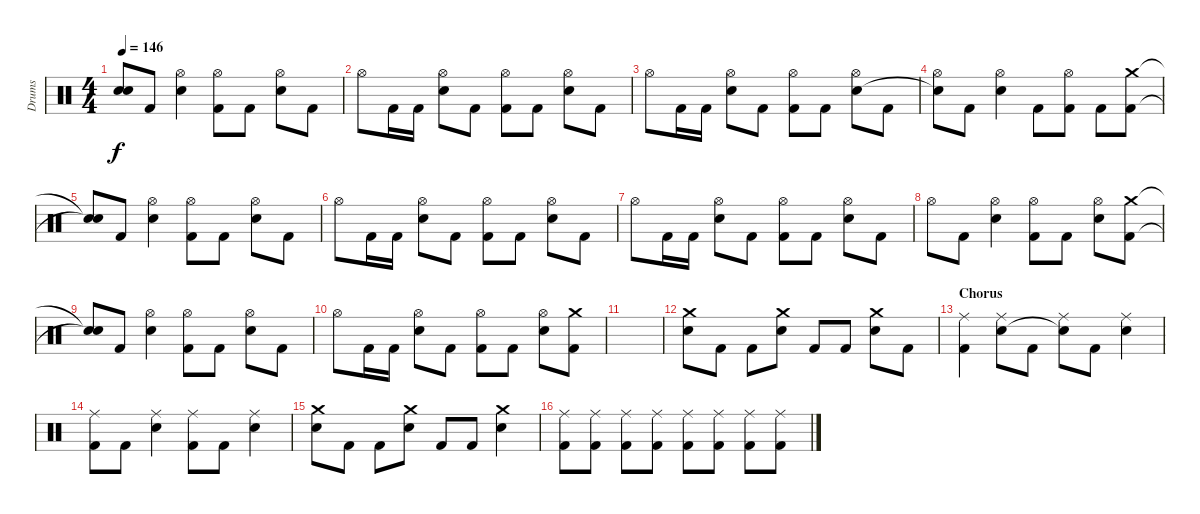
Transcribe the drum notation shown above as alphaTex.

\track ("Drums" "Drums") {instrument percussion}
\staff {score}
\articulation defaults
\ts (4 4)
\tempo 146
\clef neutral
\ks c
("Snare (hit)"{t} "Snare (hit)"{t}).8{dy f} "Kick (hit) 2".8 ("Hi-Hat (open)" "Electric Snare (hit)").4 ("Hi-Hat (open)" "Kick (hit) 2").8 "Kick (hit) 2".8 ("Hi-Hat (open)" "Electric Snare (hit)").8 "Kick (hit) 2".8 |
"Hi-Hat (open)".8 "Kick (hit) 2".16 "Kick (hit) 2".16 ("Hi-Hat (open)" "Electric Snare (hit)").8 "Kick (hit) 2".8 ("Hi-Hat (open)" "Kick (hit) 2").8 "Kick (hit) 2".8 ("Hi-Hat (open)" "Electric Snare (hit)").8 "Kick (hit) 2".8 |
"Hi-Hat (open)".8 "Kick (hit) 2".16 "Kick (hit) 2".16 ("Hi-Hat (open)" "Electric Snare (hit)").8 "Kick (hit) 2".8 ("Hi-Hat (open)" "Kick (hit) 2").8 "Kick (hit) 2".8 ("Hi-Hat (open)" "Electric Snare (hit)").8 "Kick (hit) 2".8 |
("Hi-Hat (open)" "Snare (hit)"{t}).8 "Kick (hit) 2".8 ("Hi-Hat (open)" "Electric Snare (hit)").4 "Kick (hit) 2".8 ("Hi-Hat (open)" "Kick (hit) 2").8 "Kick (hit) 2".8 ("Crash medium (hit)" "Kick (hit) 2").8 |
("Snare (hit)"{t} "Snare (hit)"{t}).8 "Kick (hit) 2".8 ("Hi-Hat (open)" "Electric Snare (hit)").4 ("Hi-Hat (open)" "Kick (hit) 2").8 "Kick (hit) 2".8 ("Hi-Hat (open)" "Electric Snare (hit)").8 "Kick (hit) 2".8 |
"Hi-Hat (open)".8 "Kick (hit) 2".16 "Kick (hit) 2".16 ("Hi-Hat (open)" "Electric Snare (hit)").8 "Kick (hit) 2".8 ("Hi-Hat (open)" "Kick (hit) 2").8 "Kick (hit) 2".8 ("Hi-Hat (open)" "Electric Snare (hit)").8 "Kick (hit) 2".8 |
"Hi-Hat (open)".8 "Kick (hit) 2".16 "Kick (hit) 2".16 ("Hi-Hat (open)" "Electric Snare (hit)").8 "Kick (hit) 2".8 ("Hi-Hat (open)" "Kick (hit) 2").8 "Kick (hit) 2".8 ("Hi-Hat (open)" "Electric Snare (hit)").8 "Kick (hit) 2".8 |
"Hi-Hat (open)".8 "Kick (hit) 2".8 ("Hi-Hat (open)" "Electric Snare (hit)").4 ("Hi-Hat (open)" "Kick (hit) 2").8 "Kick (hit) 2".8 ("Hi-Hat (open)" "Electric Snare (hit)").8 ("Crash medium (hit)" "Kick (hit) 2").8 |
("Snare (hit)"{t} "Snare (hit)"{t}).8 "Kick (hit) 2".8 ("Hi-Hat (open)" "Electric Snare (hit)").4 ("Hi-Hat (open)" "Kick (hit) 2").8 "Kick (hit) 2".8 ("Hi-Hat (open)" "Electric Snare (hit)").8 "Kick (hit) 2".8 |
"Hi-Hat (open)".8 "Kick (hit) 2".16 "Kick (hit) 2".16 ("Hi-Hat (open)" "Electric Snare (hit)").8 "Kick (hit) 2".8 ("Hi-Hat (open)" "Kick (hit) 2").8 "Kick (hit) 2".8 ("Hi-Hat (open)" "Electric Snare (hit)").8 ("Crash medium (hit)" "Kick (hit) 2").8 |
|
("Crash medium (hit)" "Electric Snare (hit)").8 "Kick (hit) 2".8 "Kick (hit) 2".8 ("Crash medium (hit)" "Electric Snare (hit)").8 "Kick (hit) 2".8 "Kick (hit) 2".8 ("Crash medium (hit)" "Electric Snare (hit)").8 "Kick (hit) 2".8 |
\section ("" "Chorus")
("Ride (middle)" "Kick (hit) 2").4 ("Ride (middle)" "Electric Snare (hit)").8 "Kick (hit) 2".8 ("Ride (middle)" "Snare (hit)"{t}).8 "Kick (hit) 2".8 ("Ride (middle)" "Electric Snare (hit)").4 |
("Ride (middle)" "Kick (hit) 2").8 "Kick (hit) 2".8 ("Ride (middle)" "Electric Snare (hit)").4 ("Ride (middle)" "Kick (hit) 2").8 "Kick (hit) 2".8 ("Ride (middle)" "Electric Snare (hit)").4 |
("Crash medium (hit)" "Electric Snare (hit)").8 "Kick (hit) 2".8 "Kick (hit) 2".8 ("Crash medium (hit)" "Electric Snare (hit)").8 "Kick (hit) 2".8 "Kick (hit) 2".8 ("Crash medium (hit)" "Electric Snare (hit)").4 |
("Ride (middle)" "Kick (hit) 2").8 ("Ride (middle)" "Kick (hit) 2").8 ("Ride (middle)" "Kick (hit) 2").8 ("Ride (middle)" "Kick (hit) 2").8 ("Ride (middle)" "Kick (hit) 2").8 ("Ride (middle)" "Kick (hit) 2").8 ("Ride (middle)" "Kick (hit) 2").8 ("Ride (middle)" "Kick (hit) 2").8
